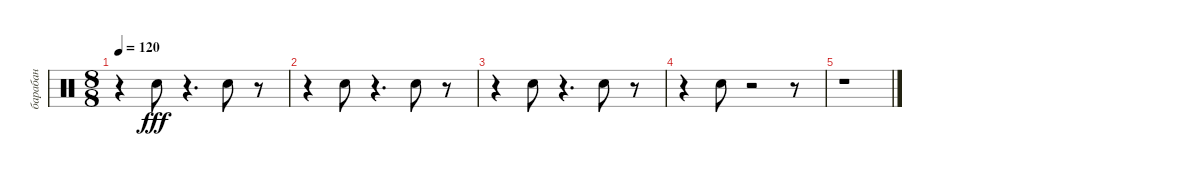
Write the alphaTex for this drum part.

\track ("барабан" "барабан") {instrument percussion}
\staff {score}
\articulation defaults
\ts (8 8)
\tempo 120
\clef neutral
\ks c
r.4{dy fff} "Snare (hit) 2".8 r.4{d} "Snare (hit) 2".8 r.8 |
r.4 "Snare (hit) 2".8 r.4{d} "Snare (hit) 2".8 r.8 |
r.4 "Snare (hit) 2".8 r.4{d} "Snare (hit) 2".8 r.8 |
r.4 "Snare (hit) 2".8 r.2 r.8 |
r.1
